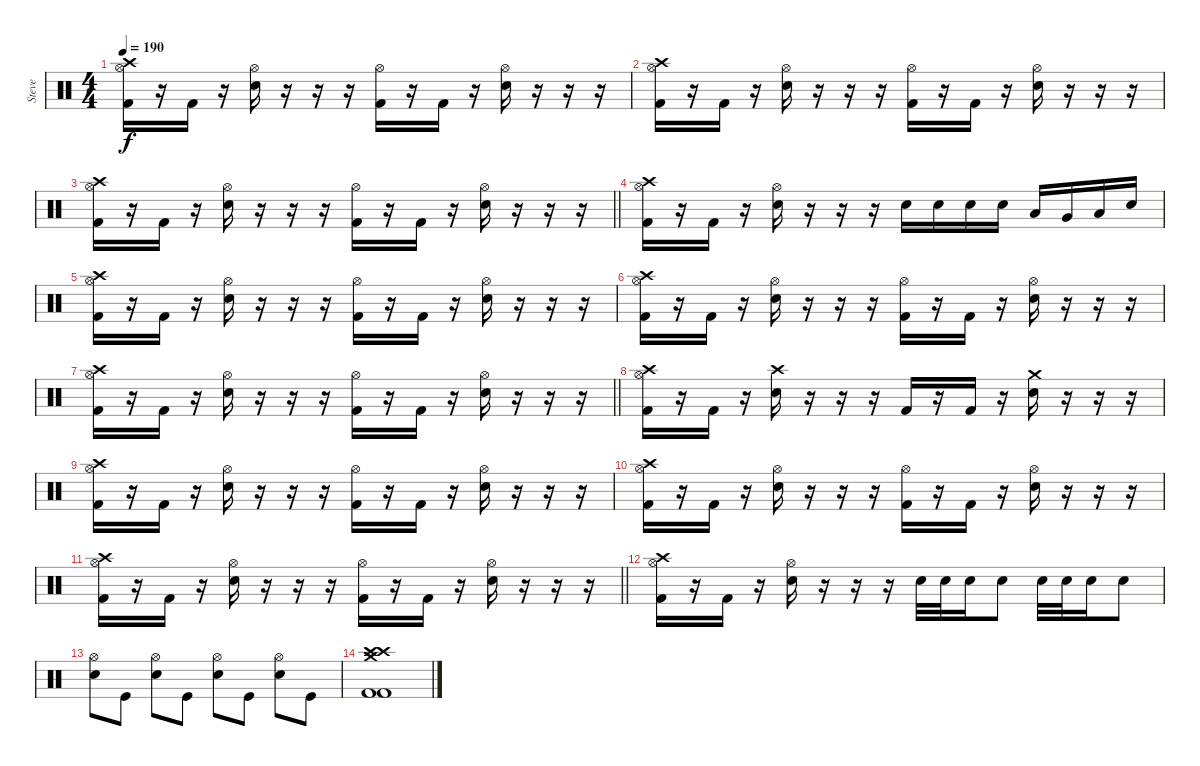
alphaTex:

\track ("Steve" "Steve") {instrument percussion}
\staff {score}
\articulation defaults
\ts (4 4)
\tempo 190
\clef neutral
\ks c
("Hi-Hat (open)" "Crash high (hit)" "Kick (hit) 2").16{dy f} r.16 "Kick (hit) 2".16 r.16 ("Hi-Hat (open)" "Snare (hit) 2").16 r.16 r.16 r.16 ("Hi-Hat (open)" "Kick (hit) 2").16 r.16 "Kick (hit) 2".16 r.16 ("Hi-Hat (open)" "Snare (hit) 2").16 r.16 r.16 r.16 |
("Hi-Hat (open)" "Crash high (hit)" "Kick (hit) 2").16 r.16 "Kick (hit) 2".16 r.16 ("Hi-Hat (open)" "Snare (hit) 2").16 r.16 r.16 r.16 ("Hi-Hat (open)" "Kick (hit) 2").16 r.16 "Kick (hit) 2".16 r.16 ("Hi-Hat (open)" "Snare (hit) 2").16 r.16 r.16 r.16 |
\barLineRight lightlight
("Hi-Hat (open)" "Crash high (hit)" "Kick (hit) 2").16 r.16 "Kick (hit) 2".16 r.16 ("Hi-Hat (open)" "Snare (hit) 2").16 r.16 r.16 r.16 ("Hi-Hat (open)" "Kick (hit) 2").16 r.16 "Kick (hit) 2".16 r.16 ("Hi-Hat (open)" "Snare (hit) 2").16 r.16 r.16 r.16 |
("Hi-Hat (open)" "Crash high (hit)" "Kick (hit) 2").16 r.16 "Kick (hit) 2".16 r.16 ("Hi-Hat (open)" "Snare (hit) 2").16 r.16 r.16 r.16 "Snare (hit) 2".16 "Snare (hit) 2".16 "Snare (hit) 2".16 "Snare (hit) 2".16 "Low Tom (hit)".16 "Very Low Tom (hit)".16 "Low Floor Tom (hit)".16 "Snare (hit) 2".16 |
("Hi-Hat (open)" "Crash high (hit)" "Kick (hit) 2").16 r.16 "Kick (hit) 2".16 r.16 ("Hi-Hat (open)" "Snare (hit) 2").16 r.16 r.16 r.16 ("Hi-Hat (open)" "Kick (hit) 2").16 r.16 "Kick (hit) 2".16 r.16 ("Hi-Hat (open)" "Snare (hit) 2").16 r.16 r.16 r.16 |
("Hi-Hat (open)" "Crash high (hit)" "Kick (hit) 2").16 r.16 "Kick (hit) 2".16 r.16 ("Hi-Hat (open)" "Snare (hit) 2").16 r.16 r.16 r.16 ("Hi-Hat (open)" "Kick (hit) 2").16 r.16 "Kick (hit) 2".16 r.16 ("Hi-Hat (open)" "Snare (hit) 2").16 r.16 r.16 r.16 |
\barLineRight lightlight
("Hi-Hat (open)" "Crash high (hit)" "Kick (hit) 2").16 r.16 "Kick (hit) 2".16 r.16 ("Hi-Hat (open)" "Snare (hit) 2").16 r.16 r.16 r.16 ("Hi-Hat (open)" "Kick (hit) 2").16 r.16 "Kick (hit) 2".16 r.16 ("Hi-Hat (open)" "Snare (hit) 2").16 r.16 r.16 r.16 |
("Hi-Hat (open)" "Crash high (hit)" "Kick (hit) 2").16 r.16 "Kick (hit) 2".16 r.16 ("Crash high (hit)" "Snare (hit) 2").16 r.16 r.16 r.16 "Kick (hit) 2".16 r.16 "Kick (hit) 2".16 r.16 ("Crash medium (hit)" "Snare (hit) 2").16 r.16 r.16 r.16 |
("Hi-Hat (open)" "Crash high (hit)" "Kick (hit) 2").16 r.16 "Kick (hit) 2".16 r.16 ("Hi-Hat (open)" "Snare (hit) 2").16 r.16 r.16 r.16 ("Hi-Hat (open)" "Kick (hit) 2").16 r.16 "Kick (hit) 2".16 r.16 ("Hi-Hat (open)" "Snare (hit) 2").16 r.16 r.16 r.16 |
("Hi-Hat (open)" "Crash high (hit)" "Kick (hit) 2").16 r.16 "Kick (hit) 2".16 r.16 ("Hi-Hat (open)" "Snare (hit) 2").16 r.16 r.16 r.16 ("Hi-Hat (open)" "Kick (hit) 2").16 r.16 "Kick (hit) 2".16 r.16 ("Hi-Hat (open)" "Snare (hit) 2").16 r.16 r.16 r.16 |
\barLineRight lightlight
("Hi-Hat (open)" "Crash high (hit)" "Kick (hit) 2").16 r.16 "Kick (hit) 2".16 r.16 ("Hi-Hat (open)" "Snare (hit) 2").16 r.16 r.16 r.16 ("Hi-Hat (open)" "Kick (hit) 2").16 r.16 "Kick (hit) 2".16 r.16 ("Hi-Hat (open)" "Snare (hit) 2").16 r.16 r.16 r.16 |
("Hi-Hat (open)" "Crash high (hit)" "Kick (hit) 2").16 r.16 "Kick (hit) 2".16 r.16 ("Hi-Hat (open)" "Snare (hit) 2").16 r.16 r.16 r.16 "Snare (hit) 2".32 "Snare (hit) 2".32 "Snare (hit) 2".16 "Snare (hit) 2".8 "Snare (hit) 2".32 "Snare (hit) 2".32 "Snare (hit) 2".16 "Snare (hit) 2".8 |
("Snare (hit) 2" "Hi-Hat (open)").8 "Kick (hit)".8 ("Snare (hit) 2" "Hi-Hat (open)").8 "Kick (hit)".8 ("Snare (hit) 2" "Hi-Hat (open)").8 "Kick (hit)".8 ("Snare (hit) 2" "Hi-Hat (open)").8 "Kick (hit)".8 |
("Crash high (hit)" "Kick (hit) 2" "Crash high (hit)" "Crash medium (hit)" "Kick (hit) 2").1
